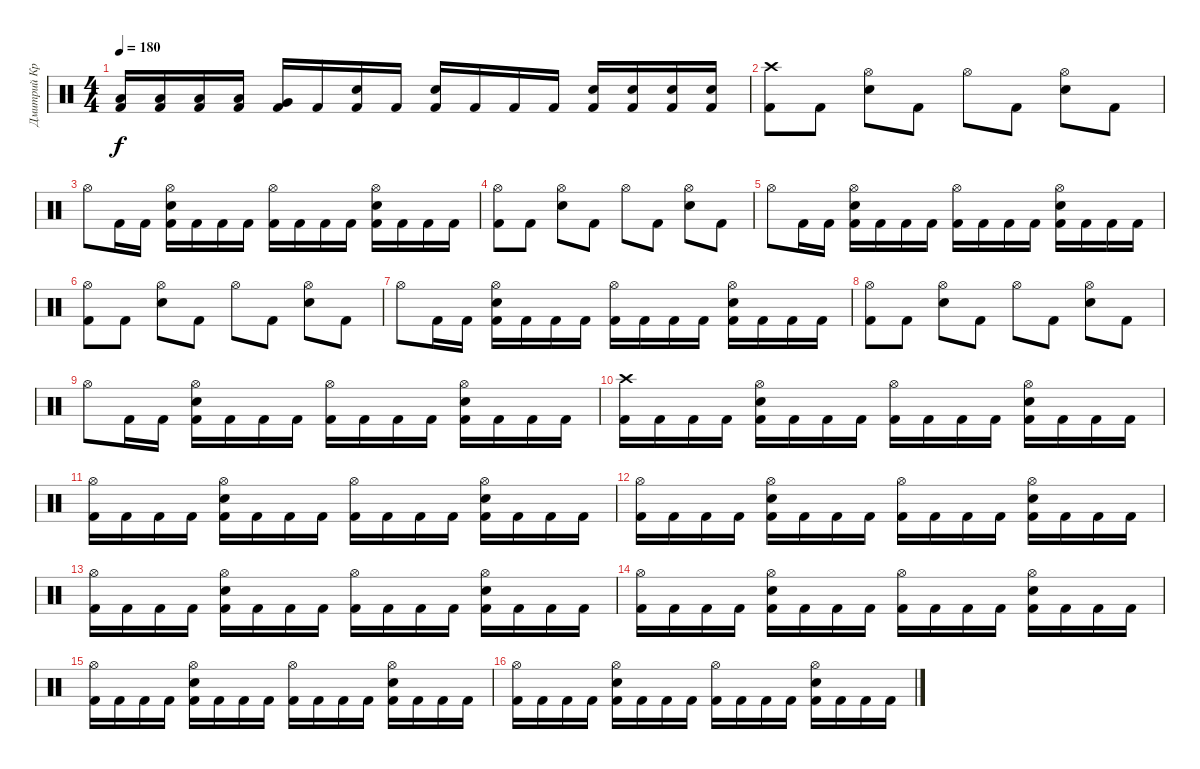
\track ("Дмитрий Кривенков" "Дмитрий Кр") {instrument percussion}
\staff {score}
\articulation defaults
\ts (4 4)
\tempo 180
\clef neutral
\ks c
("Low Tom (hit)" "Kick (hit) 2").16{dy f} ("Low Tom (hit)" "Kick (hit) 2").16 ("Low Tom (hit)" "Kick (hit) 2").16 ("Low Tom (hit)" "Kick (hit) 2").16 ("Very Low Tom (hit)" "Kick (hit) 2").16 "Kick (hit) 2".16 ("Electric Snare (hit)" "Kick (hit) 2").16 "Kick (hit) 2".16 ("Electric Snare (hit)" "Kick (hit) 2").16 "Kick (hit) 2".16 "Kick (hit) 2".16 "Kick (hit) 2".16 ("Electric Snare (hit)" "Kick (hit) 2").16 ("Electric Snare (hit)" "Kick (hit) 2").16 ("Electric Snare (hit)" "Kick (hit) 2").16 ("Electric Snare (hit)" "Kick (hit) 2").16 |
("Crash high (hit)" "Kick (hit) 2").8 "Kick (hit) 2".8 ("Hi-Hat (open)" "Electric Snare (hit)").8 "Kick (hit) 2".8 "Hi-Hat (open)".8 "Kick (hit) 2".8 ("Hi-Hat (open)" "Electric Snare (hit)").8 "Kick (hit) 2".8 |
"Hi-Hat (open)".8 "Kick (hit) 2".16 "Kick (hit) 2".16 ("Hi-Hat (open)" "Electric Snare (hit)" "Kick (hit) 2").16 "Kick (hit) 2".16 "Kick (hit) 2".16 "Kick (hit) 2".16 ("Hi-Hat (open)" "Kick (hit) 2").16 "Kick (hit) 2".16 "Kick (hit) 2".16 "Kick (hit) 2".16 ("Hi-Hat (open)" "Electric Snare (hit)" "Kick (hit) 2").16 "Kick (hit) 2".16 "Kick (hit) 2".16 "Kick (hit) 2".16 |
("Hi-Hat (open)" "Kick (hit) 2").8 "Kick (hit) 2".8 ("Hi-Hat (open)" "Electric Snare (hit)").8 "Kick (hit) 2".8 "Hi-Hat (open)".8 "Kick (hit) 2".8 ("Hi-Hat (open)" "Electric Snare (hit)").8 "Kick (hit) 2".8 |
"Hi-Hat (open)".8 "Kick (hit) 2".16 "Kick (hit) 2".16 ("Hi-Hat (open)" "Electric Snare (hit)" "Kick (hit) 2").16 "Kick (hit) 2".16 "Kick (hit) 2".16 "Kick (hit) 2".16 ("Hi-Hat (open)" "Kick (hit) 2").16 "Kick (hit) 2".16 "Kick (hit) 2".16 "Kick (hit) 2".16 ("Hi-Hat (open)" "Electric Snare (hit)" "Kick (hit) 2").16 "Kick (hit) 2".16 "Kick (hit) 2".16 "Kick (hit) 2".16 |
("Hi-Hat (open)" "Kick (hit) 2").8 "Kick (hit) 2".8 ("Hi-Hat (open)" "Electric Snare (hit)").8 "Kick (hit) 2".8 "Hi-Hat (open)".8 "Kick (hit) 2".8 ("Hi-Hat (open)" "Electric Snare (hit)").8 "Kick (hit) 2".8 |
"Hi-Hat (open)".8 "Kick (hit) 2".16 "Kick (hit) 2".16 ("Hi-Hat (open)" "Electric Snare (hit)" "Kick (hit) 2").16 "Kick (hit) 2".16 "Kick (hit) 2".16 "Kick (hit) 2".16 ("Hi-Hat (open)" "Kick (hit) 2").16 "Kick (hit) 2".16 "Kick (hit) 2".16 "Kick (hit) 2".16 ("Hi-Hat (open)" "Electric Snare (hit)" "Kick (hit) 2").16 "Kick (hit) 2".16 "Kick (hit) 2".16 "Kick (hit) 2".16 |
("Hi-Hat (open)" "Kick (hit) 2").8 "Kick (hit) 2".8 ("Hi-Hat (open)" "Electric Snare (hit)").8 "Kick (hit) 2".8 "Hi-Hat (open)".8 "Kick (hit) 2".8 ("Hi-Hat (open)" "Electric Snare (hit)").8 "Kick (hit) 2".8 |
"Hi-Hat (open)".8 "Kick (hit) 2".16 "Kick (hit) 2".16 ("Hi-Hat (open)" "Electric Snare (hit)" "Kick (hit) 2").16 "Kick (hit) 2".16 "Kick (hit) 2".16 "Kick (hit) 2".16 ("Hi-Hat (open)" "Kick (hit) 2").16 "Kick (hit) 2".16 "Kick (hit) 2".16 "Kick (hit) 2".16 ("Hi-Hat (open)" "Electric Snare (hit)" "Kick (hit) 2").16 "Kick (hit) 2".16 "Kick (hit) 2".16 "Kick (hit) 2".16 |
("Crash high (hit)" "Kick (hit) 2").16 "Kick (hit) 2".16 "Kick (hit) 2".16 "Kick (hit) 2".16 ("Hi-Hat (open)" "Electric Snare (hit)" "Kick (hit) 2").16 "Kick (hit) 2".16 "Kick (hit) 2".16 "Kick (hit) 2".16 ("Hi-Hat (open)" "Kick (hit) 2").16 "Kick (hit) 2".16 "Kick (hit) 2".16 "Kick (hit) 2".16 ("Hi-Hat (open)" "Electric Snare (hit)" "Kick (hit) 2").16 "Kick (hit) 2".16 "Kick (hit) 2".16 "Kick (hit) 2".16 |
("Hi-Hat (open)" "Kick (hit) 2").16 "Kick (hit) 2".16 "Kick (hit) 2".16 "Kick (hit) 2".16 ("Hi-Hat (open)" "Electric Snare (hit)" "Kick (hit) 2").16 "Kick (hit) 2".16 "Kick (hit) 2".16 "Kick (hit) 2".16 ("Hi-Hat (open)" "Kick (hit) 2").16 "Kick (hit) 2".16 "Kick (hit) 2".16 "Kick (hit) 2".16 ("Hi-Hat (open)" "Electric Snare (hit)" "Kick (hit) 2").16 "Kick (hit) 2".16 "Kick (hit) 2".16 "Kick (hit) 2".16 |
("Hi-Hat (open)" "Kick (hit) 2").16 "Kick (hit) 2".16 "Kick (hit) 2".16 "Kick (hit) 2".16 ("Hi-Hat (open)" "Electric Snare (hit)" "Kick (hit) 2").16 "Kick (hit) 2".16 "Kick (hit) 2".16 "Kick (hit) 2".16 ("Hi-Hat (open)" "Kick (hit) 2").16 "Kick (hit) 2".16 "Kick (hit) 2".16 "Kick (hit) 2".16 ("Hi-Hat (open)" "Electric Snare (hit)" "Kick (hit) 2").16 "Kick (hit) 2".16 "Kick (hit) 2".16 "Kick (hit) 2".16 |
("Hi-Hat (open)" "Kick (hit) 2").16 "Kick (hit) 2".16 "Kick (hit) 2".16 "Kick (hit) 2".16 ("Hi-Hat (open)" "Electric Snare (hit)" "Kick (hit) 2").16 "Kick (hit) 2".16 "Kick (hit) 2".16 "Kick (hit) 2".16 ("Hi-Hat (open)" "Kick (hit) 2").16 "Kick (hit) 2".16 "Kick (hit) 2".16 "Kick (hit) 2".16 ("Hi-Hat (open)" "Electric Snare (hit)" "Kick (hit) 2").16 "Kick (hit) 2".16 "Kick (hit) 2".16 "Kick (hit) 2".16 |
("Hi-Hat (open)" "Kick (hit) 2").16 "Kick (hit) 2".16 "Kick (hit) 2".16 "Kick (hit) 2".16 ("Hi-Hat (open)" "Electric Snare (hit)" "Kick (hit) 2").16 "Kick (hit) 2".16 "Kick (hit) 2".16 "Kick (hit) 2".16 ("Hi-Hat (open)" "Kick (hit) 2").16 "Kick (hit) 2".16 "Kick (hit) 2".16 "Kick (hit) 2".16 ("Hi-Hat (open)" "Electric Snare (hit)" "Kick (hit) 2").16 "Kick (hit) 2".16 "Kick (hit) 2".16 "Kick (hit) 2".16 |
("Hi-Hat (open)" "Kick (hit) 2").16 "Kick (hit) 2".16 "Kick (hit) 2".16 "Kick (hit) 2".16 ("Hi-Hat (open)" "Electric Snare (hit)" "Kick (hit) 2").16 "Kick (hit) 2".16 "Kick (hit) 2".16 "Kick (hit) 2".16 ("Hi-Hat (open)" "Kick (hit) 2").16 "Kick (hit) 2".16 "Kick (hit) 2".16 "Kick (hit) 2".16 ("Hi-Hat (open)" "Electric Snare (hit)" "Kick (hit) 2").16 "Kick (hit) 2".16 "Kick (hit) 2".16 "Kick (hit) 2".16 |
("Hi-Hat (open)" "Kick (hit) 2").16 "Kick (hit) 2".16 "Kick (hit) 2".16 "Kick (hit) 2".16 ("Hi-Hat (open)" "Electric Snare (hit)" "Kick (hit) 2").16 "Kick (hit) 2".16 "Kick (hit) 2".16 "Kick (hit) 2".16 ("Hi-Hat (open)" "Kick (hit) 2").16 "Kick (hit) 2".16 "Kick (hit) 2".16 "Kick (hit) 2".16 ("Hi-Hat (open)" "Electric Snare (hit)" "Kick (hit) 2").16 "Kick (hit) 2".16 "Kick (hit) 2".16 "Kick (hit) 2".16
